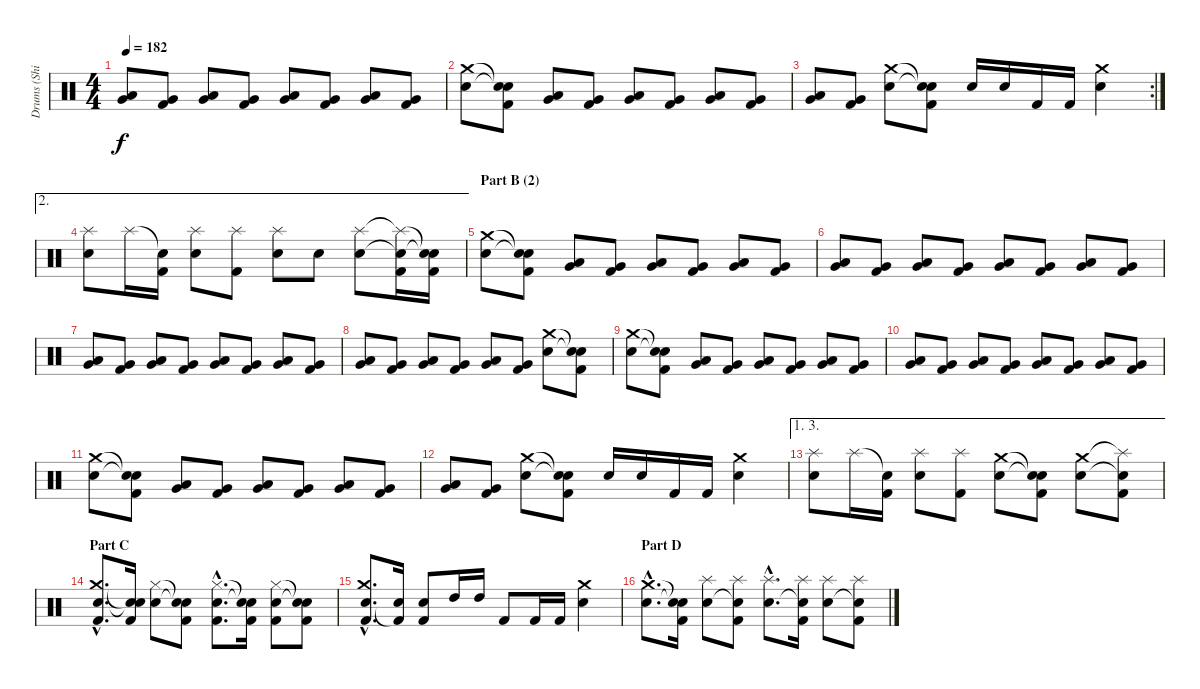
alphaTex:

\track ("Drums (Shinya)" "Drums (Shi") {instrument percussion}
\staff {score}
\articulation defaults
\ts (4 4)
\tempo 182
\clef neutral
\ks c
("Low Tom (hit)" "Very Low Tom (hit)").8{dy f} ("Very Low Tom (hit)" "Kick (hit) 2").8 ("Low Tom (hit)" "Very Low Tom (hit)").8 ("Very Low Tom (hit)" "Kick (hit) 2").8 ("Low Tom (hit)" "Very Low Tom (hit)").8 ("Very Low Tom (hit)" "Kick (hit) 2").8 ("Low Tom (hit)" "Very Low Tom (hit)").8 ("Very Low Tom (hit)" "Kick (hit) 2").8 |
("Crash medium (hit)" "Electric Snare (hit)").8 ("Snare (hit)"{t} "Snare (hit)"{t} "Kick (hit) 2").8 ("Low Tom (hit)" "Very Low Tom (hit)").8 ("Very Low Tom (hit)" "Kick (hit) 2").8 ("Low Tom (hit)" "Very Low Tom (hit)").8 ("Very Low Tom (hit)" "Kick (hit) 2").8 ("Low Tom (hit)" "Very Low Tom (hit)").8 ("Very Low Tom (hit)" "Kick (hit) 2").8 |
\rc 2
("Low Tom (hit)" "Very Low Tom (hit)").8 ("Very Low Tom (hit)" "Kick (hit) 2").8 ("Crash medium (hit)" "Electric Snare (hit)").8 ("Snare (hit)"{t} "Snare (hit)"{t} "Kick (hit) 2").8 "Electric Snare (hit)".16 "Electric Snare (hit)".16 "Kick (hit) 2".16 "Kick (hit) 2".16 ("Crash medium (hit)" "Electric Snare (hit)").4 |
\ae 2
("Splash (hit)" "Electric Snare (hit)").8 "Splash (hit)".16 ("Snare (hit)"{t} "Kick (hit) 2").16 ("Splash (hit)" "Electric Snare (hit)").8 ("Splash (hit)" "Kick (hit) 2").8 ("Splash (hit)" "Electric Snare (hit)").8 "Electric Snare (hit)".8 ("Splash (hit)" "Electric Snare (hit)").8 ("Splash (hit)"{t} "Snare (hit)"{t} "Kick (hit) 2").16 ("Snare (hit)"{t} "Snare (hit)"{t} "Kick (hit) 2").16 |
\section ("" "Part B (2)")
("Crash medium (hit)" "Electric Snare (hit)").8 ("Snare (hit)"{t} "Snare (hit)"{t} "Kick (hit) 2").8 ("Low Tom (hit)" "Very Low Tom (hit)").8 ("Very Low Tom (hit)" "Kick (hit) 2").8 ("Low Tom (hit)" "Very Low Tom (hit)").8 ("Very Low Tom (hit)" "Kick (hit) 2").8 ("Low Tom (hit)" "Very Low Tom (hit)").8 ("Very Low Tom (hit)" "Kick (hit) 2").8 |
("Low Tom (hit)" "Very Low Tom (hit)").8 ("Very Low Tom (hit)" "Kick (hit) 2").8 ("Low Tom (hit)" "Very Low Tom (hit)").8 ("Very Low Tom (hit)" "Kick (hit) 2").8 ("Low Tom (hit)" "Very Low Tom (hit)").8 ("Very Low Tom (hit)" "Kick (hit) 2").8 ("Low Tom (hit)" "Very Low Tom (hit)").8 ("Very Low Tom (hit)" "Kick (hit) 2").8 |
("Low Tom (hit)" "Very Low Tom (hit)").8 ("Very Low Tom (hit)" "Kick (hit) 2").8 ("Low Tom (hit)" "Very Low Tom (hit)").8 ("Very Low Tom (hit)" "Kick (hit) 2").8 ("Low Tom (hit)" "Very Low Tom (hit)").8 ("Very Low Tom (hit)" "Kick (hit) 2").8 ("Low Tom (hit)" "Very Low Tom (hit)").8 ("Very Low Tom (hit)" "Kick (hit) 2").8 |
("Low Tom (hit)" "Very Low Tom (hit)").8 ("Very Low Tom (hit)" "Kick (hit) 2").8 ("Low Tom (hit)" "Very Low Tom (hit)").8 ("Very Low Tom (hit)" "Kick (hit) 2").8 ("Low Tom (hit)" "Very Low Tom (hit)").8 ("Very Low Tom (hit)" "Kick (hit) 2").8 ("Crash medium (hit)" "Electric Snare (hit)").8 ("Snare (hit)"{t} "Snare (hit)"{t} "Kick (hit) 2").8 |
("Crash medium (hit)" "Electric Snare (hit)").8 ("Snare (hit)"{t} "Snare (hit)"{t} "Kick (hit) 2").8 ("Low Tom (hit)" "Very Low Tom (hit)").8 ("Very Low Tom (hit)" "Kick (hit) 2").8 ("Low Tom (hit)" "Very Low Tom (hit)").8 ("Very Low Tom (hit)" "Kick (hit) 2").8 ("Low Tom (hit)" "Very Low Tom (hit)").8 ("Very Low Tom (hit)" "Kick (hit) 2").8 |
("Low Tom (hit)" "Very Low Tom (hit)").8 ("Very Low Tom (hit)" "Kick (hit) 2").8 ("Low Tom (hit)" "Very Low Tom (hit)").8 ("Very Low Tom (hit)" "Kick (hit) 2").8 ("Low Tom (hit)" "Very Low Tom (hit)").8 ("Very Low Tom (hit)" "Kick (hit) 2").8 ("Low Tom (hit)" "Very Low Tom (hit)").8 ("Very Low Tom (hit)" "Kick (hit) 2").8 |
("Crash medium (hit)" "Electric Snare (hit)").8 ("Snare (hit)"{t} "Snare (hit)"{t} "Kick (hit) 2").8 ("Low Tom (hit)" "Very Low Tom (hit)").8 ("Very Low Tom (hit)" "Kick (hit) 2").8 ("Low Tom (hit)" "Very Low Tom (hit)").8 ("Very Low Tom (hit)" "Kick (hit) 2").8 ("Low Tom (hit)" "Very Low Tom (hit)").8 ("Very Low Tom (hit)" "Kick (hit) 2").8 |
("Low Tom (hit)" "Very Low Tom (hit)").8 ("Very Low Tom (hit)" "Kick (hit) 2").8 ("Crash medium (hit)" "Electric Snare (hit)").8 ("Snare (hit)"{t} "Snare (hit)"{t} "Kick (hit) 2").8 "Electric Snare (hit)".16 "Electric Snare (hit)".16 "Kick (hit) 2".16 "Kick (hit) 2".16 ("Crash medium (hit)" "Electric Snare (hit)").4 |
\ae (1 3)
("Splash (hit)" "Electric Snare (hit)").8 "Splash (hit)".16 ("Snare (hit)"{t} "Kick (hit) 2").16 ("Splash (hit)" "Electric Snare (hit)").8 ("Splash (hit)" "Kick (hit) 2").8 ("Crash medium (hit)" "Electric Snare (hit)").8 ("Snare (hit)"{t} "Snare (hit)"{t} "Kick (hit) 2").8 ("Crash medium (hit)" "Electric Snare (hit)").8 ("Splash (hit)"{t} "Snare (hit)"{t} "Kick (hit) 2").8 |
\section ("" "Part C")
("Crash medium (hit)"{hac} "Electric Snare (hit)"{hac} "Kick (hit) 2"{hac}).8{d} ("Snare (hit)"{t} "Snare (hit)"{t} "Kick (hit) 2").16 ("Hi-Hat (closed)" "Electric Snare (hit)").8 ("Snare (hit)"{t} "Snare (hit)"{t} "Kick (hit) 2").8 ("Hi-Hat (closed)"{hac} "Electric Snare (hit)"{hac} "Kick (hit) 2"{hac}).8{d} ("Snare (hit)"{t} "Snare (hit)"{t} "Kick (hit) 2").16 ("Hi-Hat (closed)" "Electric Snare (hit)" "Kick (hit) 2").8 ("Snare (hit)"{t} "Snare (hit)"{t} "Kick (hit) 2").8 |
("Crash medium (hit)"{hac} "Electric Snare (hit)"{hac} "Kick (hit) 2"{hac}).8{d} ("Electric Snare (hit)" "Kick (hit) 2"{t}).16 ("Electric Snare (hit)" "Kick (hit) 2").8 "High Tom (hit)".16 "High Tom (hit)".16 "Kick (hit) 2".8 "Kick (hit) 2".16 "Kick (hit) 2".16 ("Crash medium (hit)" "Electric Snare (hit)").4 |
\section ("" "Part D")
("Crash medium (hit)"{hac} "Electric Snare (hit)"{hac}).8{d} ("Snare (hit)"{t} "Snare (hit)"{t} "Kick (hit) 2").16 ("Splash (hit)" "Electric Snare (hit)").8 ("Splash (hit)" "Snare (hit)"{t} "Kick (hit) 2").8 ("Splash (hit)"{hac} "Electric Snare (hit)"{hac}).8{d} ("Splash (hit)" "Snare (hit)"{t} "Kick (hit) 2").16 ("Splash (hit)" "Electric Snare (hit)").8 ("Splash (hit)" "Snare (hit)"{t} "Kick (hit) 2").8
